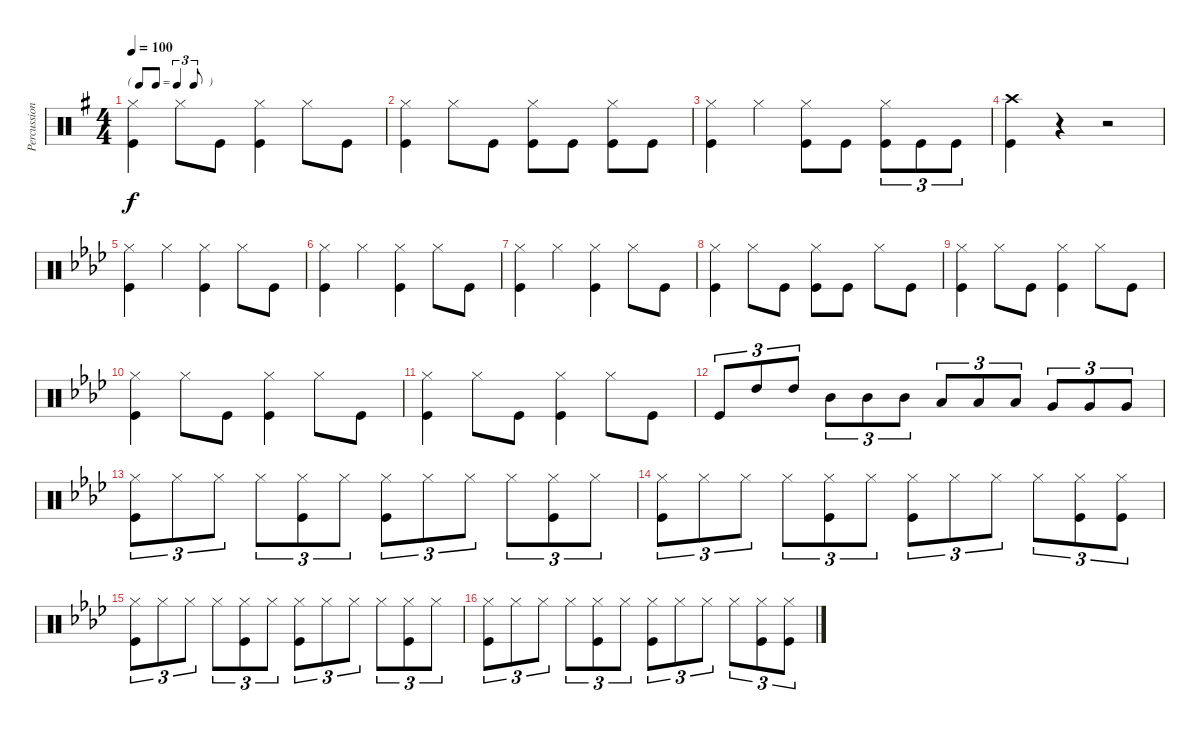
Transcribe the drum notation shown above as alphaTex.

\track ("Percussion" "Percussion") {instrument percussion}
\staff {score}
\articulation defaults
\ts (4 4)
\tf triplet8th
\tempo 100
\clef neutral
\ks g
("Hi-Hat (closed)" "Kick (hit)").4{dy f} "Hi-Hat (closed)".8 "Kick (hit)".8 ("Hi-Hat (closed)" "Kick (hit)").4 "Hi-Hat (closed)".8 "Kick (hit)".8 |
("Hi-Hat (closed)" "Kick (hit)").4 "Hi-Hat (closed)".8 "Kick (hit)".8 ("Hi-Hat (closed)" "Kick (hit)").8 "Kick (hit)".8 ("Hi-Hat (closed)" "Kick (hit)").8 "Kick (hit)".8 |
("Hi-Hat (closed)" "Kick (hit)").4 "Hi-Hat (closed)".4 ("Hi-Hat (closed)" "Kick (hit)").8 "Kick (hit)".8 ("Hi-Hat (closed)" "Kick (hit)").8{tu (3 2)} "Kick (hit)".8{tu (3 2)} "Kick (hit)".8{tu (3 2)} |
("Crash high (hit)" "Kick (hit)").4 r.4 r.2 |
\ks ab
("Hi-Hat (closed)" "Kick (hit)").4 "Hi-Hat (closed)".4 ("Hi-Hat (closed)" "Kick (hit)").4 "Hi-Hat (closed)".8 "Kick (hit)".8 |
("Hi-Hat (closed)" "Kick (hit)").4 "Hi-Hat (closed)".4 ("Hi-Hat (closed)" "Kick (hit)").4 "Hi-Hat (closed)".8 "Kick (hit)".8 |
("Hi-Hat (closed)" "Kick (hit)").4 "Hi-Hat (closed)".4 ("Hi-Hat (closed)" "Kick (hit)").4 "Hi-Hat (closed)".8 "Kick (hit)".8 |
("Hi-Hat (closed)" "Kick (hit)").4 "Hi-Hat (closed)".8 "Kick (hit)".8 ("Hi-Hat (closed)" "Kick (hit)").8 "Kick (hit)".8 "Hi-Hat (closed)".8 "Kick (hit)".8 |
("Hi-Hat (closed)" "Kick (hit)").4 "Hi-Hat (closed)".8 "Kick (hit)".8 ("Hi-Hat (closed)" "Kick (hit)").4 "Hi-Hat (closed)".8 "Kick (hit)".8 |
("Hi-Hat (closed)" "Kick (hit)").4 "Hi-Hat (closed)".8 "Kick (hit)".8 ("Hi-Hat (closed)" "Kick (hit)").4 "Hi-Hat (closed)".8 "Kick (hit)".8 |
("Hi-Hat (closed)" "Kick (hit)").4 "Hi-Hat (closed)".8 "Kick (hit)".8 ("Hi-Hat (closed)" "Kick (hit)").4 "Hi-Hat (closed)".8 "Kick (hit)".8 |
"Kick (hit)".8{tu (3 2)} "High Tom (hit)".8{tu (3 2)} "High Tom (hit)".8{tu (3 2)} "Mid Tom (hit)".8{tu (3 2)} "Mid Tom (hit)".8{tu (3 2)} "Mid Tom (hit)".8{tu (3 2)} "Low Tom (hit)".8{tu (3 2)} "Low Tom (hit)".8{tu (3 2)} "Low Tom (hit)".8{tu (3 2)} "Very Low Tom (hit)".8{tu (3 2)} "Very Low Tom (hit)".8{tu (3 2)} "Very Low Tom (hit)".8{tu (3 2)} |
("Hi-Hat (closed)" "Kick (hit)").8{tu (3 2)} "Hi-Hat (closed)".8{tu (3 2)} "Hi-Hat (closed)".8{tu (3 2)} "Hi-Hat (closed)".8{tu (3 2)} ("Hi-Hat (closed)" "Kick (hit)").8{tu (3 2)} "Hi-Hat (closed)".8{tu (3 2)} ("Hi-Hat (closed)" "Kick (hit)").8{tu (3 2)} "Hi-Hat (closed)".8{tu (3 2)} "Hi-Hat (closed)".8{tu (3 2)} "Hi-Hat (closed)".8{tu (3 2)} ("Hi-Hat (closed)" "Kick (hit)").8{tu (3 2)} "Hi-Hat (closed)".8{tu (3 2)} |
("Hi-Hat (closed)" "Kick (hit)").8{tu (3 2)} "Hi-Hat (closed)".8{tu (3 2)} "Hi-Hat (closed)".8{tu (3 2)} "Hi-Hat (closed)".8{tu (3 2)} ("Hi-Hat (closed)" "Kick (hit)").8{tu (3 2)} "Hi-Hat (closed)".8{tu (3 2)} ("Hi-Hat (closed)" "Kick (hit)").8{tu (3 2)} "Hi-Hat (closed)".8{tu (3 2)} "Hi-Hat (closed)".8{tu (3 2)} "Hi-Hat (closed)".8{tu (3 2)} ("Hi-Hat (closed)" "Kick (hit)").8{tu (3 2)} ("Hi-Hat (closed)" "Kick (hit)").8{tu (3 2)} |
("Hi-Hat (closed)" "Kick (hit)").8{tu (3 2)} "Hi-Hat (closed)".8{tu (3 2)} "Hi-Hat (closed)".8{tu (3 2)} "Hi-Hat (closed)".8{tu (3 2)} ("Hi-Hat (closed)" "Kick (hit)").8{tu (3 2)} "Hi-Hat (closed)".8{tu (3 2)} ("Hi-Hat (closed)" "Kick (hit)").8{tu (3 2)} "Hi-Hat (closed)".8{tu (3 2)} "Hi-Hat (closed)".8{tu (3 2)} "Hi-Hat (closed)".8{tu (3 2)} ("Hi-Hat (closed)" "Kick (hit)").8{tu (3 2)} "Hi-Hat (closed)".8{tu (3 2)} |
("Hi-Hat (closed)" "Kick (hit)").8{tu (3 2)} "Hi-Hat (closed)".8{tu (3 2)} "Hi-Hat (closed)".8{tu (3 2)} "Hi-Hat (closed)".8{tu (3 2)} ("Hi-Hat (closed)" "Kick (hit)").8{tu (3 2)} "Hi-Hat (closed)".8{tu (3 2)} ("Hi-Hat (closed)" "Kick (hit)").8{tu (3 2)} "Hi-Hat (closed)".8{tu (3 2)} "Hi-Hat (closed)".8{tu (3 2)} "Hi-Hat (closed)".8{tu (3 2)} ("Hi-Hat (closed)" "Kick (hit)").8{tu (3 2)} ("Hi-Hat (closed)" "Kick (hit)").8{tu (3 2)}
